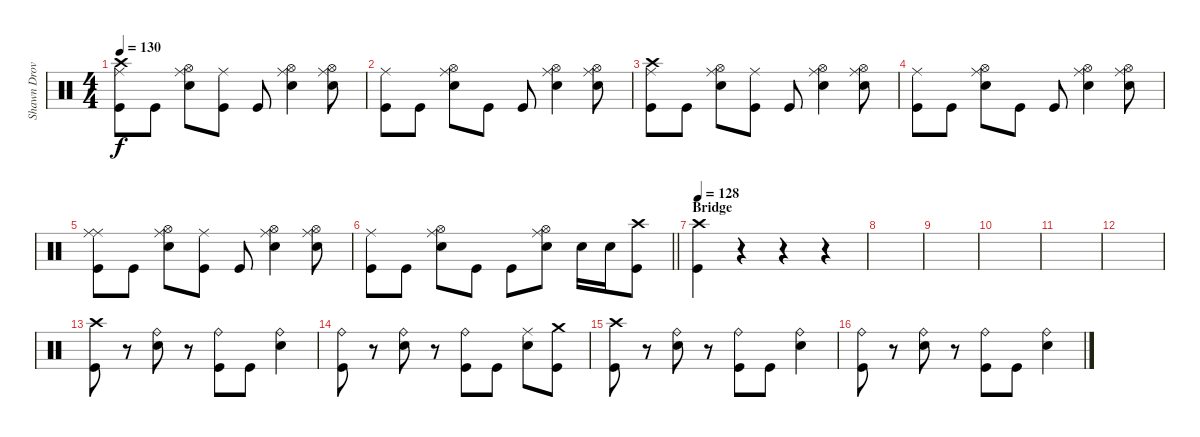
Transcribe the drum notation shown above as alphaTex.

\track ("Shawn Drover" "Shawn Drov") {instrument percussion}
\staff {score}
\articulation defaults
\ts (4 4)
\tempo 130
\clef neutral
\ks c
("Crash high (hit)" "Ride (middle)" "Kick (hit)").8{dy f} "Kick (hit)".8 ("Ride (middle)" "Hi-Hat (open)" "Snare (hit) 2").8 ("Ride (middle)" "Kick (hit)").8 "Kick (hit)".8 ("Ride (middle)" "Hi-Hat (open)" "Snare (hit) 2").4 ("Ride (middle)" "Hi-Hat (open)" "Snare (hit) 2").8 |
("Ride (middle)" "Kick (hit)").8 "Kick (hit)".8 ("Ride (middle)" "Hi-Hat (open)" "Snare (hit) 2").8 "Kick (hit)".8 "Kick (hit)".8 ("Ride (middle)" "Hi-Hat (open)" "Snare (hit) 2").4 ("Ride (middle)" "Hi-Hat (open)" "Snare (hit) 2").8 |
("Crash high (hit)" "Ride (middle)" "Kick (hit)").8 "Kick (hit)".8 ("Ride (middle)" "Hi-Hat (open)" "Snare (hit) 2").8 ("Ride (middle)" "Kick (hit)").8 "Kick (hit)".8 ("Ride (middle)" "Hi-Hat (open)" "Snare (hit) 2").4 ("Ride (middle)" "Hi-Hat (open)" "Snare (hit) 2").8 |
("Ride (middle)" "Kick (hit)").8 "Kick (hit)".8 ("Ride (middle)" "Hi-Hat (open)" "Snare (hit) 2").8 "Kick (hit)".8 "Kick (hit)".8 ("Ride (middle)" "Hi-Hat (open)" "Snare (hit) 2").4 ("Ride (middle)" "Hi-Hat (open)" "Snare (hit) 2").8 |
("Ride (middle)" "Ride (middle)" "Kick (hit)").8 "Kick (hit)".8 ("Ride (middle)" "Hi-Hat (open)" "Snare (hit) 2").8 ("Ride (middle)" "Kick (hit)").8 "Kick (hit)".8 ("Ride (middle)" "Hi-Hat (open)" "Snare (hit) 2").4 ("Ride (middle)" "Hi-Hat (open)" "Snare (hit) 2").8 |
\barLineRight lightlight
("Ride (middle)" "Kick (hit)").8 "Kick (hit)".8 ("Ride (middle)" "Hi-Hat (open)" "Snare (hit) 2").8 "Kick (hit)".8 "Kick (hit)".8 ("Ride (middle)" "Hi-Hat (open)" "Snare (hit) 2").8 "Snare (hit) 2".16 "Snare (hit) 2".16 ("Crash high (hit)" "Kick (hit)").8 |
\section ("" "Bridge")
\tempo 128
("Crash high (hit)" "Kick (hit)").4 r.4 r.4 r.4 |
|
|
|
|
|
("Crash high (hit)" "Kick (hit)").8 r.8 ("Ride (bell)" "Snare (hit) 2").8 r.8 ("Ride (bell)" "Kick (hit)").8 "Kick (hit)".8 ("Ride (bell)" "Snare (hit) 2").4 |
("Ride (bell)" "Kick (hit)").8 r.8 ("Ride (bell)" "Snare (hit) 2").8 r.8 ("Ride (bell)" "Kick (hit)").8 "Kick (hit)".8 ("Ride (middle)" "Snare (hit) 2").8 ("Crash medium (hit)" "Kick (hit)").8 |
("Crash high (hit)" "Kick (hit)").8 r.8 ("Ride (bell)" "Snare (hit) 2").8 r.8 ("Ride (bell)" "Kick (hit)").8 "Kick (hit)".8 ("Ride (bell)" "Snare (hit) 2").4 |
("Ride (bell)" "Kick (hit)").8 r.8 ("Ride (bell)" "Snare (hit) 2").8 r.8 ("Ride (bell)" "Kick (hit)").8 "Kick (hit)".8 ("Ride (bell)" "Snare (hit) 2").4
